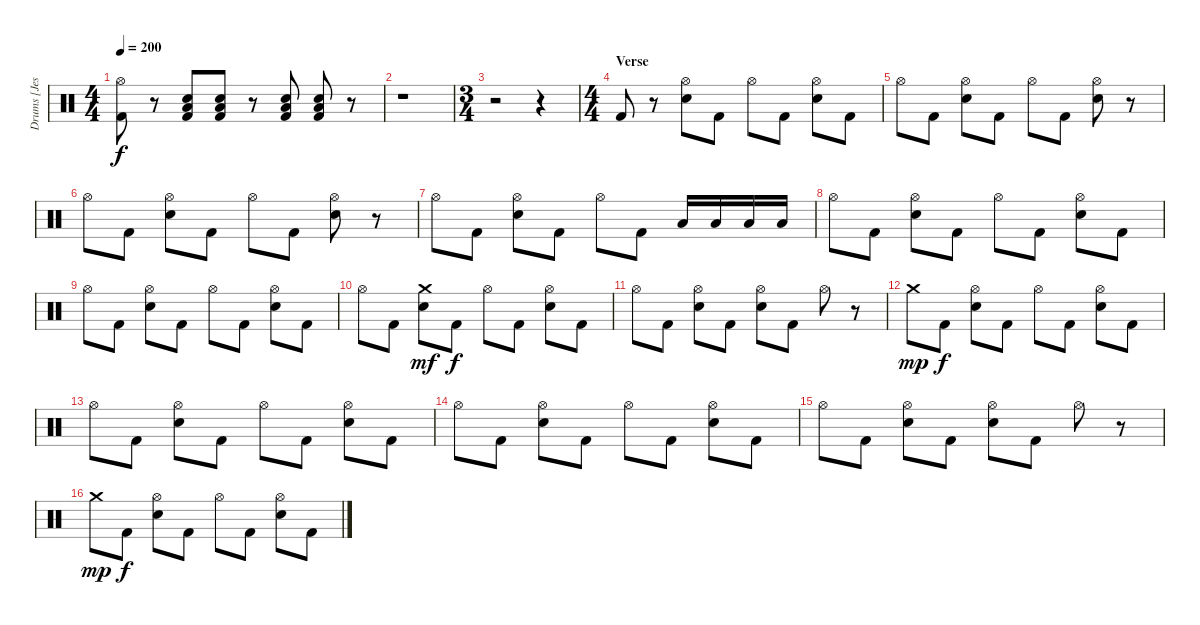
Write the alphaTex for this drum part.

\track ("Drums [Jesse Ingelevics]" "Drums [Jes") {instrument percussion}
\staff {score}
\articulation defaults
\ts (4 4)
\tempo 200
\clef neutral
\ks c
("Hi-Hat (open)" "Kick (hit) 2").8{dy f} r.8 ("Low Floor Tom (hit)" "Electric Snare (hit)" "Kick (hit) 2").8 ("Low Floor Tom (hit)" "Electric Snare (hit)" "Kick (hit) 2").8 r.8 ("Low Floor Tom (hit)" "Electric Snare (hit)" "Kick (hit) 2").8 ("Low Floor Tom (hit)" "Electric Snare (hit)" "Kick (hit) 2").8 r.8 |
r.1 |
\ts (3 4)
r.2 r.4 |
\ts (4 4)
\section ("" "Verse")
"Kick (hit) 2".8 r.8 ("Hi-Hat (open)" "Electric Snare (hit)").8 "Kick (hit) 2".8 "Hi-Hat (open)".8 "Kick (hit) 2".8 ("Hi-Hat (open)" "Electric Snare (hit)").8 "Kick (hit) 2".8 |
"Hi-Hat (open)".8 "Kick (hit) 2".8 ("Hi-Hat (open)" "Electric Snare (hit)").8 "Kick (hit) 2".8 "Hi-Hat (open)".8 "Kick (hit) 2".8 ("Hi-Hat (open)" "Electric Snare (hit)").8 r.8 |
"Hi-Hat (open)".8 "Kick (hit) 2".8 ("Hi-Hat (open)" "Electric Snare (hit)").8 "Kick (hit) 2".8 "Hi-Hat (open)".8 "Kick (hit) 2".8 ("Hi-Hat (open)" "Electric Snare (hit)").8 r.8 |
"Hi-Hat (open)".8 "Kick (hit) 2".8 ("Hi-Hat (open)" "Electric Snare (hit)").8 "Kick (hit) 2".8 "Hi-Hat (open)".8 "Kick (hit) 2".8 "Low Tom (hit)".16 "Low Tom (hit)".16 "Low Tom (hit)".16 "Low Tom (hit)".16 |
"Hi-Hat (open)".8 "Kick (hit) 2".8 ("Hi-Hat (open)" "Electric Snare (hit)").8 "Kick (hit) 2".8 "Hi-Hat (open)".8 "Kick (hit) 2".8 ("Hi-Hat (open)" "Electric Snare (hit)").8 "Kick (hit) 2".8 |
"Hi-Hat (open)".8 "Kick (hit) 2".8 ("Hi-Hat (open)" "Electric Snare (hit)").8 "Kick (hit) 2".8 "Hi-Hat (open)".8 "Kick (hit) 2".8 ("Hi-Hat (open)" "Electric Snare (hit)").8 "Kick (hit) 2".8 |
"Hi-Hat (open)".8 "Kick (hit) 2".8 ("Crash medium (hit)" "Electric Snare (hit)").8{dy mf} "Kick (hit) 2".8{dy f} "Hi-Hat (open)".8 "Kick (hit) 2".8 ("Hi-Hat (open)" "Electric Snare (hit)").8 "Kick (hit) 2".8 |
"Hi-Hat (open)".8 "Kick (hit) 2".8 ("Hi-Hat (open)" "Electric Snare (hit)").8 "Kick (hit) 2".8 ("Hi-Hat (open)" "Electric Snare (hit)").8 "Kick (hit) 2".8 "Hi-Hat (open)".8 r.8 |
"Crash medium (hit)".8{dy mp} "Kick (hit) 2".8{dy f} ("Hi-Hat (open)" "Electric Snare (hit)").8 "Kick (hit) 2".8 "Hi-Hat (open)".8 "Kick (hit) 2".8 ("Hi-Hat (open)" "Electric Snare (hit)").8 "Kick (hit) 2".8 |
"Hi-Hat (open)".8 "Kick (hit) 2".8 ("Hi-Hat (open)" "Electric Snare (hit)").8 "Kick (hit) 2".8 "Hi-Hat (open)".8 "Kick (hit) 2".8 ("Hi-Hat (open)" "Electric Snare (hit)").8 "Kick (hit) 2".8 |
"Hi-Hat (open)".8 "Kick (hit) 2".8 ("Hi-Hat (open)" "Electric Snare (hit)").8 "Kick (hit) 2".8 "Hi-Hat (open)".8 "Kick (hit) 2".8 ("Hi-Hat (open)" "Electric Snare (hit)").8 "Kick (hit) 2".8 |
"Hi-Hat (open)".8 "Kick (hit) 2".8 ("Hi-Hat (open)" "Electric Snare (hit)").8 "Kick (hit) 2".8 ("Hi-Hat (open)" "Electric Snare (hit)").8 "Kick (hit) 2".8 "Hi-Hat (open)".8 r.8 |
"Crash medium (hit)".8{dy mp} "Kick (hit) 2".8{dy f} ("Hi-Hat (open)" "Electric Snare (hit)").8 "Kick (hit) 2".8 "Hi-Hat (open)".8 "Kick (hit) 2".8 ("Hi-Hat (open)" "Electric Snare (hit)").8 "Kick (hit) 2".8
